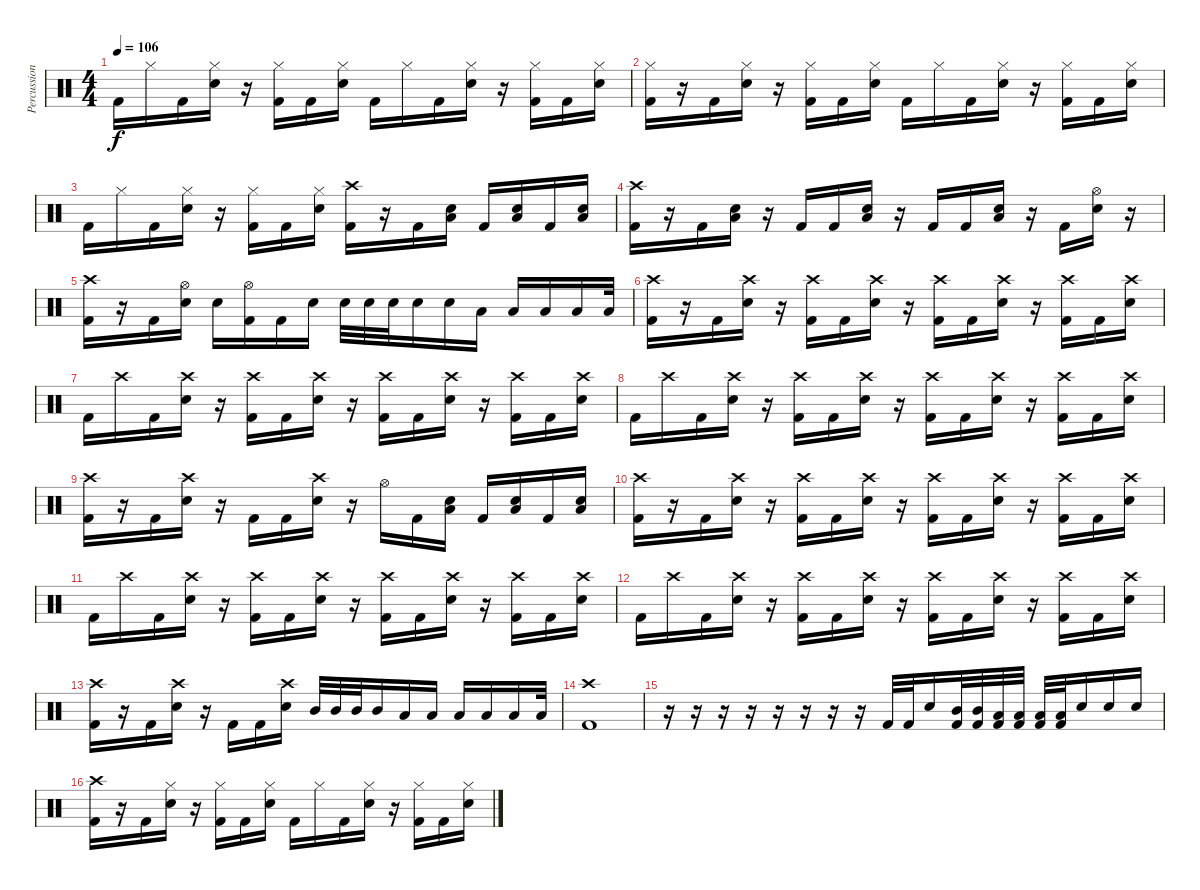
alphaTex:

\track ("Percussion" "Percussion") {instrument percussion}
\staff {score}
\articulation defaults
\ts (4 4)
\tempo 106
\clef neutral
\ks c "Kick (hit) 2".16{dy f} "Hi-Hat (closed)".16 "Kick (hit) 2".16
("Hi-Hat (closed)" "Snare (hit) 2").16 r.16 ("Hi-Hat (closed)" "Kick (hit) 2").16 "Kick (hit) 2".16 ("Hi-Hat (closed)" "Snare (hit) 2").16 "Kick (hit) 2".16 "Hi-Hat (closed)".16 "Kick (hit) 2".16 ("Hi-Hat (closed)" "Snare (hit) 2").16 r.16 ("Hi-Hat (closed)" "Kick (hit) 2").16 "Kick (hit) 2".16 ("Hi-Hat (closed)" "Snare (hit) 2").16 |
("Hi-Hat (closed)" "Kick (hit) 2").16 r.16 "Kick (hit) 2".16 ("Hi-Hat (closed)" "Snare (hit) 2").16 r.16 ("Hi-Hat (closed)" "Kick (hit) 2").16 "Kick (hit) 2".16 ("Hi-Hat (closed)" "Snare (hit) 2").16 "Kick (hit) 2".16 "Hi-Hat (closed)".16 "Kick (hit) 2".16 ("Hi-Hat (closed)" "Snare (hit) 2").16 r.16 ("Hi-Hat (closed)" "Kick (hit) 2").16 "Kick (hit) 2".16 ("Hi-Hat (closed)" "Snare (hit) 2").16 |
"Kick (hit) 2".16 "Hi-Hat (closed)".16 "Kick (hit) 2".16 ("Hi-Hat (closed)" "Snare (hit) 2").16 r.16 ("Hi-Hat (closed)" "Kick (hit) 2").16 "Kick (hit) 2".16 ("Hi-Hat (closed)" "Snare (hit) 2").16 ("Crash high (hit)" "Kick (hit) 2").16 r.16 "Kick (hit) 2".16 ("Low Floor Tom (hit)" "Snare (hit) 2").16 "Kick (hit) 2".16 ("Low Floor Tom (hit)" "Snare (hit) 2").16 "Kick (hit) 2".16 ("Low Floor Tom (hit)" "Snare (hit) 2").16 |
("Crash high (hit)" "Kick (hit) 2").16 r.16 "Kick (hit) 2".16 ("Low Floor Tom (hit)" "Snare (hit) 2").16 r.16 "Kick (hit) 2".16 "Kick (hit) 2".16 ("Low Floor Tom (hit)" "Snare (hit) 2").16 r.16 "Kick (hit) 2".16 "Kick (hit) 2".16 ("Low Floor Tom (hit)" "Snare (hit) 2").16 r.16 "Kick (hit) 2".16 ("Hi-Hat (open)" "Snare (hit) 2").16 r.16 |
("Crash high (hit)" "Kick (hit) 2").16 r.16 "Kick (hit) 2".16 ("Hi-Hat (open)" "Snare (hit) 2").16 "Snare (hit) 2".16 ("Hi-Hat (open)" "Kick (hit) 2").16 "Kick (hit) 2".16 "Snare (hit) 2".16 "Snare (hit) 2".32 "Snare (hit) 2".32 "Snare (hit) 2".32 "Snare (hit) 2".16 "Snare (hit) 2".16 "Low Tom (hit)".16 "Low Tom (hit)".16 "Low Tom (hit)".16 "Low Tom (hit)".16 "Low Tom (hit)".32 |
("Crash high (hit)" "Kick (hit) 2").16 r.16 "Kick (hit) 2".16 ("Crash high (hit)" "Snare (hit) 2").16 r.16 ("Crash high (hit)" "Kick (hit) 2").16 "Kick (hit) 2".16 ("Crash high (hit)" "Snare (hit) 2").16 r.16 ("Crash high (hit)" "Kick (hit) 2").16 "Kick (hit) 2".16 ("Crash high (hit)" "Snare (hit) 2").16 r.16 ("Crash high (hit)" "Kick (hit) 2").16 "Kick (hit) 2".16 ("Crash high (hit)" "Snare (hit) 2").16 |
"Kick (hit) 2".16 "Crash high (hit)".16 "Kick (hit) 2".16 ("Crash high (hit)" "Snare (hit) 2").16 r.16 ("Crash high (hit)" "Kick (hit) 2").16 "Kick (hit) 2".16 ("Crash high (hit)" "Snare (hit) 2").16 r.16 ("Crash high (hit)" "Kick (hit) 2").16 "Kick (hit) 2".16 ("Crash high (hit)" "Snare (hit) 2").16 r.16 ("Crash high (hit)" "Kick (hit) 2").16 "Kick (hit) 2".16 ("Crash high (hit)" "Snare (hit) 2").16 |
"Kick (hit) 2".16 "Crash high (hit)".16 "Kick (hit) 2".16 ("Crash high (hit)" "Snare (hit) 2").16 r.16 ("Crash high (hit)" "Kick (hit) 2").16 "Kick (hit) 2".16 ("Crash high (hit)" "Snare (hit) 2").16 r.16 ("Crash high (hit)" "Kick (hit) 2").16 "Kick (hit) 2".16 ("Crash high (hit)" "Snare (hit) 2").16 r.16 ("Crash high (hit)" "Kick (hit) 2").16 "Kick (hit) 2".16 ("Crash high (hit)" "Snare (hit) 2").16 |
("Crash high (hit)" "Kick (hit) 2").16 r.16 "Kick (hit) 2".16 ("Crash high (hit)" "Snare (hit) 2").16 r.16 "Kick (hit) 2".16 "Kick (hit) 2".16 ("Crash high (hit)" "Snare (hit) 2").16 r.16 "Hi-Hat (open)".16 "Kick (hit) 2".16 ("Low Floor Tom (hit)" "Snare (hit) 2").16 "Kick (hit) 2".16 ("Low Floor Tom (hit)" "Snare (hit) 2").16 "Kick (hit) 2".16 ("Low Floor Tom (hit)" "Snare (hit) 2").16 |
("Crash high (hit)" "Kick (hit) 2").16 r.16 "Kick (hit) 2".16 ("Crash high (hit)" "Snare (hit) 2").16 r.16 ("Crash high (hit)" "Kick (hit) 2").16 "Kick (hit) 2".16 ("Crash high (hit)" "Snare (hit) 2").16 r.16 ("Crash high (hit)" "Kick (hit) 2").16 "Kick (hit) 2".16 ("Crash high (hit)" "Snare (hit) 2").16 r.16 ("Crash high (hit)" "Kick (hit) 2").16 "Kick (hit) 2".16 ("Crash high (hit)" "Snare (hit) 2").16 |
"Kick (hit) 2".16 "Crash high (hit)".16 "Kick (hit) 2".16 ("Crash high (hit)" "Snare (hit) 2").16 r.16 ("Crash high (hit)" "Kick (hit) 2").16 "Kick (hit) 2".16 ("Crash high (hit)" "Snare (hit) 2").16 r.16 ("Crash high (hit)" "Kick (hit) 2").16 "Kick (hit) 2".16 ("Crash high (hit)" "Snare (hit) 2").16 r.16 ("Crash high (hit)" "Kick (hit) 2").16 "Kick (hit) 2".16 ("Crash high (hit)" "Snare (hit) 2").16 |
"Kick (hit) 2".16 "Crash high (hit)".16 "Kick (hit) 2".16 ("Crash high (hit)" "Snare (hit) 2").16 r.16 ("Crash high (hit)" "Kick (hit) 2").16 "Kick (hit) 2".16 ("Crash high (hit)" "Snare (hit) 2").16 r.16 ("Crash high (hit)" "Kick (hit) 2").16 "Kick (hit) 2".16 ("Crash high (hit)" "Snare (hit) 2").16 r.16 ("Crash high (hit)" "Kick (hit) 2").16 "Kick (hit) 2".16 ("Crash high (hit)" "Snare (hit) 2").16 |
("Crash high (hit)" "Kick (hit) 2").16 r.16 "Kick (hit) 2".16 ("Crash high (hit)" "Snare (hit) 2").16 r.16 "Kick (hit) 2".16 "Kick (hit) 2".16 ("Crash high (hit)" "Snare (hit) 2").16 "Mid Tom (hit)".32 "Mid Tom (hit)".32 "Mid Tom (hit)".32 "Mid Tom (hit)".16 "Low Tom (hit)".16 "Low Tom (hit)".16 "Low Tom (hit)".16 "Low Tom (hit)".16 "Low Floor Tom (hit)".16 "Low Floor Tom (hit)".32 |
("Crash high (hit)" "Kick (hit) 2").1 |
r.16 r.16 r.16 r.16 r.16 r.16 r.16 r.16 "Kick (hit) 2".32 "Kick (hit) 2".32 "Snare (hit) 2".16 ("Mid Tom (hit)" "Kick (hit) 2").32 ("Mid Tom (hit)" "Kick (hit) 2").32 ("Low Tom (hit)" "Kick (hit) 2").32 ("Low Tom (hit)" "Kick (hit) 2").32 ("Low Floor Tom (hit)" "Kick (hit) 2").32 ("Low Floor Tom (hit)" "Kick (hit) 2").32 "Snare (hit) 2".16 "Snare (hit) 2".16 "Snare (hit) 2".16 |
("Crash high (hit)" "Kick (hit) 2").16 r.16 "Kick (hit) 2".16 ("Hi-Hat (closed)" "Snare (hit) 2").16 r.16 ("Hi-Hat (closed)" "Kick (hit) 2").16 "Kick (hit) 2".16 ("Hi-Hat (closed)" "Snare (hit) 2").16 "Kick (hit) 2".16 "Hi-Hat (closed)".16 "Kick (hit) 2".16 ("Hi-Hat (closed)" "Snare (hit) 2").16 r.16 ("Hi-Hat (closed)" "Kick (hit) 2").16 "Kick (hit) 2".16 ("Hi-Hat (closed)" "Snare (hit) 2").16
